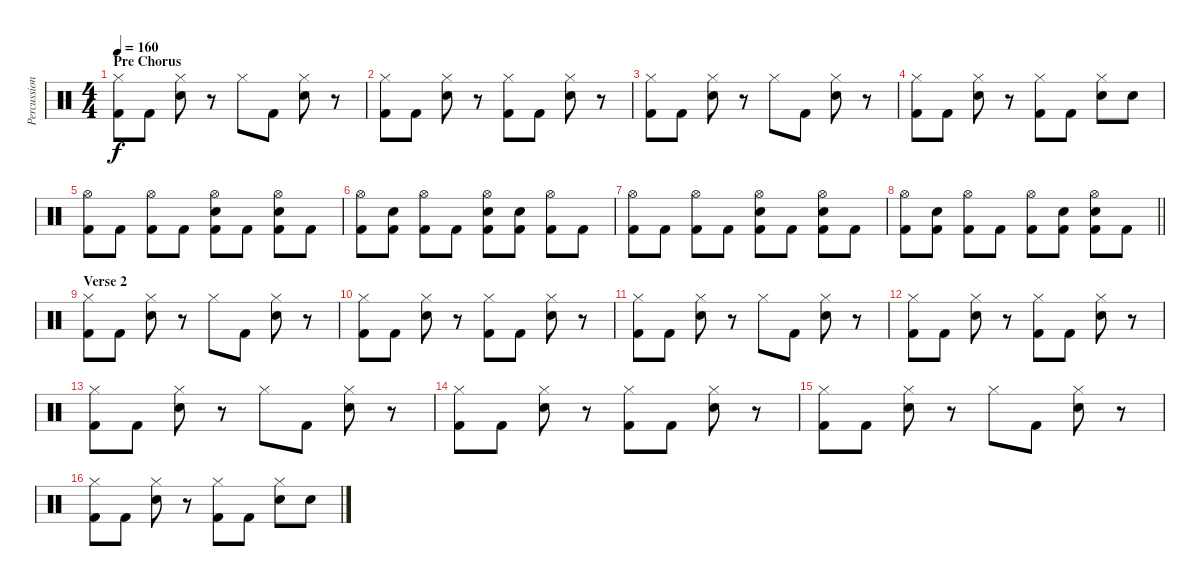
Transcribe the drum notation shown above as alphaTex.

\track ("Percussion" "Percussion") {instrument percussion}
\staff {score}
\articulation defaults
\ts (4 4)
\section ("" "Pre Chorus")
\tempo 160
\clef neutral
\ks c
("Hi-Hat (closed)" "Kick (hit) 2").8{dy f} "Kick (hit) 2".8 ("Hi-Hat (closed)" "Snare (hit) 2").8 r.8 "Hi-Hat (closed)".8 "Kick (hit) 2".8 ("Hi-Hat (closed)" "Snare (hit) 2").8 r.8 |
("Hi-Hat (closed)" "Kick (hit) 2").8 "Kick (hit) 2".8 ("Hi-Hat (closed)" "Snare (hit) 2").8 r.8 ("Hi-Hat (closed)" "Kick (hit) 2").8 "Kick (hit) 2".8 ("Hi-Hat (closed)" "Snare (hit) 2").8 r.8 |
("Hi-Hat (closed)" "Kick (hit) 2").8 "Kick (hit) 2".8 ("Hi-Hat (closed)" "Snare (hit) 2").8 r.8 "Hi-Hat (closed)".8 "Kick (hit) 2".8 ("Hi-Hat (closed)" "Snare (hit) 2").8 r.8 |
("Hi-Hat (closed)" "Kick (hit) 2").8 "Kick (hit) 2".8 ("Hi-Hat (closed)" "Snare (hit) 2").8 r.8 ("Hi-Hat (closed)" "Kick (hit) 2").8 "Kick (hit) 2".8 ("Hi-Hat (closed)" "Snare (hit) 2").8 "Snare (hit) 2".8 |
("Hi-Hat (open)" "Kick (hit) 2").8 "Kick (hit) 2".8 ("Hi-Hat (open)" "Kick (hit) 2").8 "Kick (hit) 2".8 ("Hi-Hat (open)" "Snare (hit) 2" "Kick (hit) 2").8 "Kick (hit) 2".8 ("Hi-Hat (open)" "Snare (hit) 2" "Kick (hit) 2").8 "Kick (hit) 2".8 |
("Hi-Hat (open)" "Kick (hit) 2").8 ("Snare (hit) 2" "Kick (hit) 2").8 ("Hi-Hat (open)" "Kick (hit) 2").8 "Kick (hit) 2".8 ("Hi-Hat (open)" "Snare (hit) 2" "Kick (hit) 2").8 ("Snare (hit) 2" "Kick (hit) 2").8 ("Hi-Hat (open)" "Kick (hit) 2").8 "Kick (hit) 2".8 |
("Hi-Hat (open)" "Kick (hit) 2").8 "Kick (hit) 2".8 ("Hi-Hat (open)" "Kick (hit) 2").8 "Kick (hit) 2".8 ("Hi-Hat (open)" "Snare (hit) 2" "Kick (hit) 2").8 "Kick (hit) 2".8 ("Hi-Hat (open)" "Snare (hit) 2" "Kick (hit) 2").8 "Kick (hit) 2".8 |
\barLineRight lightlight
("Hi-Hat (open)" "Kick (hit) 2").8 ("Snare (hit) 2" "Kick (hit) 2").8 ("Hi-Hat (open)" "Kick (hit) 2").8 "Kick (hit) 2".8 ("Hi-Hat (open)" "Kick (hit) 2").8 ("Snare (hit) 2" "Kick (hit) 2").8 ("Hi-Hat (open)" "Snare (hit) 2" "Kick (hit) 2").8 "Kick (hit) 2".8 |
\section ("" "Verse 2")
("Hi-Hat (closed)" "Kick (hit) 2").8 "Kick (hit) 2".8 ("Hi-Hat (closed)" "Snare (hit) 2").8 r.8 "Hi-Hat (closed)".8 "Kick (hit) 2".8 ("Hi-Hat (closed)" "Snare (hit) 2").8 r.8 |
("Hi-Hat (closed)" "Kick (hit) 2").8 "Kick (hit) 2".8 ("Hi-Hat (closed)" "Snare (hit) 2").8 r.8 ("Hi-Hat (closed)" "Kick (hit) 2").8 "Kick (hit) 2".8 ("Hi-Hat (closed)" "Snare (hit) 2").8 r.8 |
("Hi-Hat (closed)" "Kick (hit) 2").8 "Kick (hit) 2".8 ("Hi-Hat (closed)" "Snare (hit) 2").8 r.8 "Hi-Hat (closed)".8 "Kick (hit) 2".8 ("Hi-Hat (closed)" "Snare (hit) 2").8 r.8 |
("Hi-Hat (closed)" "Kick (hit) 2").8 "Kick (hit) 2".8 ("Hi-Hat (closed)" "Snare (hit) 2").8 r.8 ("Hi-Hat (closed)" "Kick (hit) 2").8 "Kick (hit) 2".8 ("Hi-Hat (closed)" "Snare (hit) 2").8 r.8 |
("Hi-Hat (closed)" "Kick (hit) 2").8 "Kick (hit) 2".8 ("Hi-Hat (closed)" "Snare (hit) 2").8 r.8 "Hi-Hat (closed)".8 "Kick (hit) 2".8 ("Hi-Hat (closed)" "Snare (hit) 2").8 r.8 |
("Hi-Hat (closed)" "Kick (hit) 2").8 "Kick (hit) 2".8 ("Hi-Hat (closed)" "Snare (hit) 2").8 r.8 ("Hi-Hat (closed)" "Kick (hit) 2").8 "Kick (hit) 2".8 ("Hi-Hat (closed)" "Snare (hit) 2").8 r.8 |
("Hi-Hat (closed)" "Kick (hit) 2").8 "Kick (hit) 2".8 ("Hi-Hat (closed)" "Snare (hit) 2").8 r.8 "Hi-Hat (closed)".8 "Kick (hit) 2".8 ("Hi-Hat (closed)" "Snare (hit) 2").8 r.8 |
("Hi-Hat (closed)" "Kick (hit) 2").8 "Kick (hit) 2".8 ("Hi-Hat (closed)" "Snare (hit) 2").8 r.8 ("Hi-Hat (closed)" "Kick (hit) 2").8 "Kick (hit) 2".8 ("Hi-Hat (closed)" "Snare (hit) 2").8 "Snare (hit) 2".8
